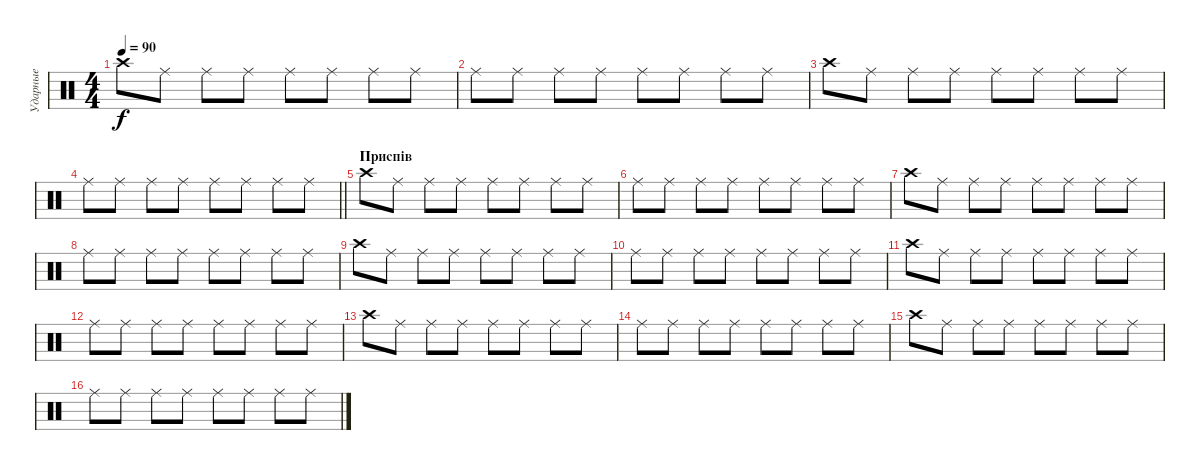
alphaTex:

\track ("Ударные" "Ударные") {instrument percussion}
\staff {score}
\articulation defaults
\ts (4 4)
\tempo 90
\clef neutral
\ks c "Crash high (hit)".8{dy f} "Ride (middle)".8 "Ride (middle)".8 "Ride (middle)".8 "Ride (middle)".8 "Ride (middle)".8 "Ride (middle)".8 "Ride (middle)".8
|
"Ride (middle)".8 "Ride (middle)".8 "Ride (middle)".8 "Ride (middle)".8 "Ride (middle)".8 "Ride (middle)".8 "Ride (middle)".8 "Ride (middle)".8 |
"Crash high (hit)".8 "Ride (middle)".8 "Ride (middle)".8 "Ride (middle)".8 "Ride (middle)".8 "Ride (middle)".8 "Ride (middle)".8 "Ride (middle)".8 |
\barLineRight lightlight "Ride (middle)".8 "Ride (middle)".8 "Ride (middle)".8 "Ride (middle)".8 "Ride (middle)".8 "Ride (middle)".8 "Ride (middle)".8 "Ride (middle)".8
|
\section ("" "Приспів")
"Crash high (hit)".8 "Ride (middle)".8 "Ride (middle)".8 "Ride (middle)".8 "Ride (middle)".8 "Ride (middle)".8 "Ride (middle)".8 "Ride (middle)".8 |
"Ride (middle)".8 "Ride (middle)".8 "Ride (middle)".8 "Ride (middle)".8 "Ride (middle)".8 "Ride (middle)".8 "Ride (middle)".8 "Ride (middle)".8 |
"Crash high (hit)".8 "Ride (middle)".8 "Ride (middle)".8 "Ride (middle)".8 "Ride (middle)".8 "Ride (middle)".8 "Ride (middle)".8 "Ride (middle)".8 |
"Ride (middle)".8 "Ride (middle)".8 "Ride (middle)".8 "Ride (middle)".8 "Ride (middle)".8 "Ride (middle)".8 "Ride (middle)".8 "Ride (middle)".8 |
"Crash high (hit)".8 "Ride (middle)".8 "Ride (middle)".8 "Ride (middle)".8 "Ride (middle)".8 "Ride (middle)".8 "Ride (middle)".8 "Ride (middle)".8 |
"Ride (middle)".8 "Ride (middle)".8 "Ride (middle)".8 "Ride (middle)".8 "Ride (middle)".8 "Ride (middle)".8 "Ride (middle)".8 "Ride (middle)".8 |
"Crash high (hit)".8 "Ride (middle)".8 "Ride (middle)".8 "Ride (middle)".8 "Ride (middle)".8 "Ride (middle)".8 "Ride (middle)".8 "Ride (middle)".8 |
"Ride (middle)".8 "Ride (middle)".8 "Ride (middle)".8 "Ride (middle)".8 "Ride (middle)".8 "Ride (middle)".8 "Ride (middle)".8 "Ride (middle)".8 |
"Crash high (hit)".8 "Ride (middle)".8 "Ride (middle)".8 "Ride (middle)".8 "Ride (middle)".8 "Ride (middle)".8 "Ride (middle)".8 "Ride (middle)".8 |
"Ride (middle)".8 "Ride (middle)".8 "Ride (middle)".8 "Ride (middle)".8 "Ride (middle)".8 "Ride (middle)".8 "Ride (middle)".8 "Ride (middle)".8 |
"Crash high (hit)".8 "Ride (middle)".8 "Ride (middle)".8 "Ride (middle)".8 "Ride (middle)".8 "Ride (middle)".8 "Ride (middle)".8 "Ride (middle)".8 |
"Ride (middle)".8 "Ride (middle)".8 "Ride (middle)".8 "Ride (middle)".8 "Ride (middle)".8 "Ride (middle)".8 "Ride (middle)".8 "Ride (middle)".8
